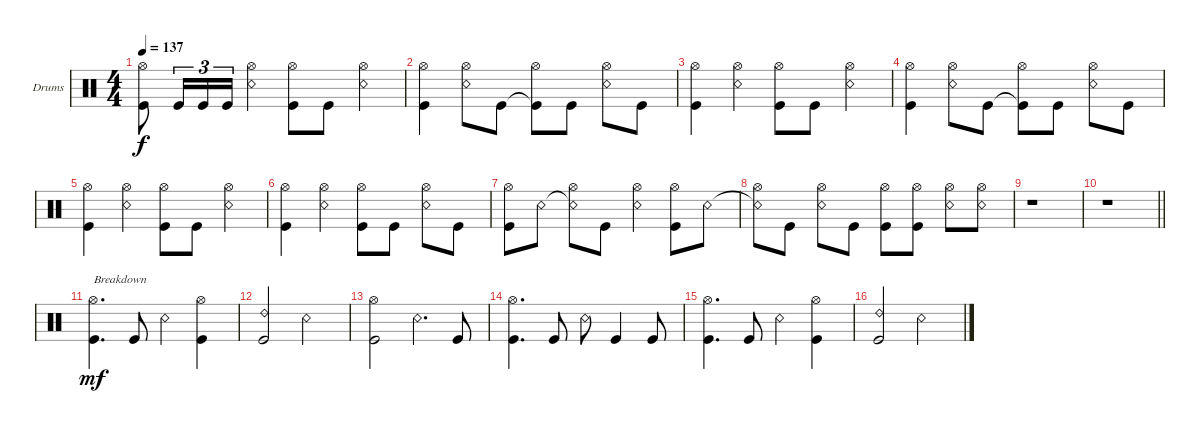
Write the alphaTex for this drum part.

\defaultSystemsLayout 4
\bracketExtendMode groupsimilarinstruments
\firstSystemTrackNameOrientation horizontal
\otherSystemsTrackNameOrientation horizontal
\track ("Drums" "Drums") {instrument percussion}
\staff {score}
\articulation defaults
\ts (4 4)
\tempo 137
\clef neutral
\scale
0.333333
\ks c
("Kick (hit)" "Hi-Hat (open)").8{dy f} "Kick (hit)".16{tu (3 2)} "Kick (hit)".16{tu (3 2)} "Kick (hit)".16{tu (3 2)} ("Snare (rim shot)" "Hi-Hat (open)").4 ("Kick (hit)" "Hi-Hat (open)").8 "Kick (hit)".8 ("Snare (rim shot)" "Hi-Hat (open)").4 |
\scale
0.333333 ("Kick (hit)" "Hi-Hat (open)").4 ("Snare (rim shot)" "Hi-Hat (open)").8 "Kick (hit)".8 ("Kick (hit)"{t} "Hi-Hat (open)").8 "Kick (hit)".8 ("Snare (rim shot)" "Hi-Hat (open)").8 "Kick (hit)".8 |
\scale
0.333333 ("Kick (hit)" "Hi-Hat (open)").4 ("Snare (rim shot)" "Hi-Hat (open)").4 ("Kick (hit)" "Hi-Hat (open)").8 "Kick (hit)".8 ("Snare (rim shot)" "Hi-Hat (open)").4 |
\scale
0.333333 ("Kick (hit)" "Hi-Hat (open)").4 ("Snare (rim shot)" "Hi-Hat (open)").8 "Kick (hit)".8 ("Kick (hit)"{t} "Hi-Hat (open)").8 "Kick (hit)".8 ("Snare (rim shot)" "Hi-Hat (open)").8 "Kick (hit)".8 |
\scale
0.333333 ("Kick (hit)" "Hi-Hat (open)").4 ("Snare (rim shot)" "Hi-Hat (open)").4 ("Kick (hit)" "Hi-Hat (open)").8 "Kick (hit)".8 ("Snare (rim shot)" "Hi-Hat (open)").4 |
\scale
0.333333 ("Kick (hit)" "Hi-Hat (open)").4 ("Snare (rim shot)" "Hi-Hat (open)").4 ("Kick (hit)" "Hi-Hat (open)").8 "Kick (hit)".8 ("Snare (rim shot)" "Hi-Hat (open)").8 "Kick (hit)".8 |
\scale
0.333333 ("Kick (hit)" "Hi-Hat (open)").8 "Snare (rim shot)".8 ("Snare (rim shot)"{t} "Hi-Hat (open)").8 "Kick (hit)".8 ("Snare (rim shot)" "Hi-Hat (open)").4 ("Kick (hit)" "Hi-Hat (open)").8 "Snare (rim shot)".8 |
\scale
0.333333 ("Snare (rim shot)"{t} "Hi-Hat (open)").8 "Kick (hit)".8 ("Snare (rim shot)" "Hi-Hat (open)").8 "Kick (hit)".8 ("Kick (hit)" "Hi-Hat (open)").8 ("Hi-Hat (open)" "Kick (hit)").8 ("Snare (rim shot)" "Hi-Hat (open)").8 ("Snare (rim shot)" "Hi-Hat (open)").8 |
\scale
0.333333 r.1 |
\scale
0.333333
\barLineRight lightlight
r.1 |
\scale
0.333333 ("Kick (hit)" "Hi-Hat (open)").4{d txt "Breakdown" dy mf} "Kick (hit)".8 "Snare (rim shot)".4 ("Kick (hit)" "Hi-Hat (open)").4 |
\scale
0.333333 ("Kick (hit)" "Ride (bell) 2").2 "Snare (rim shot)".2 |
\scale
0.333333 ("Kick (hit)" "Hi-Hat (open)").2 "Snare (rim shot)".4{d} "Kick (hit)".8 |
\scale
0.333333 ("Kick (hit)" "Hi-Hat (open)").4{d} "Kick (hit)".8 "Snare (rim shot)".8 "Kick (hit)".4 "Kick (hit)".8 |
\scale
0.333333 ("Kick (hit)" "Hi-Hat (open)").4{d} "Kick (hit)".8 "Snare (rim shot)".4 ("Kick (hit)" "Hi-Hat (open)").4 |
\scale
0.333333 ("Kick (hit)" "Ride (bell) 2").2 "Snare (rim shot)".2
